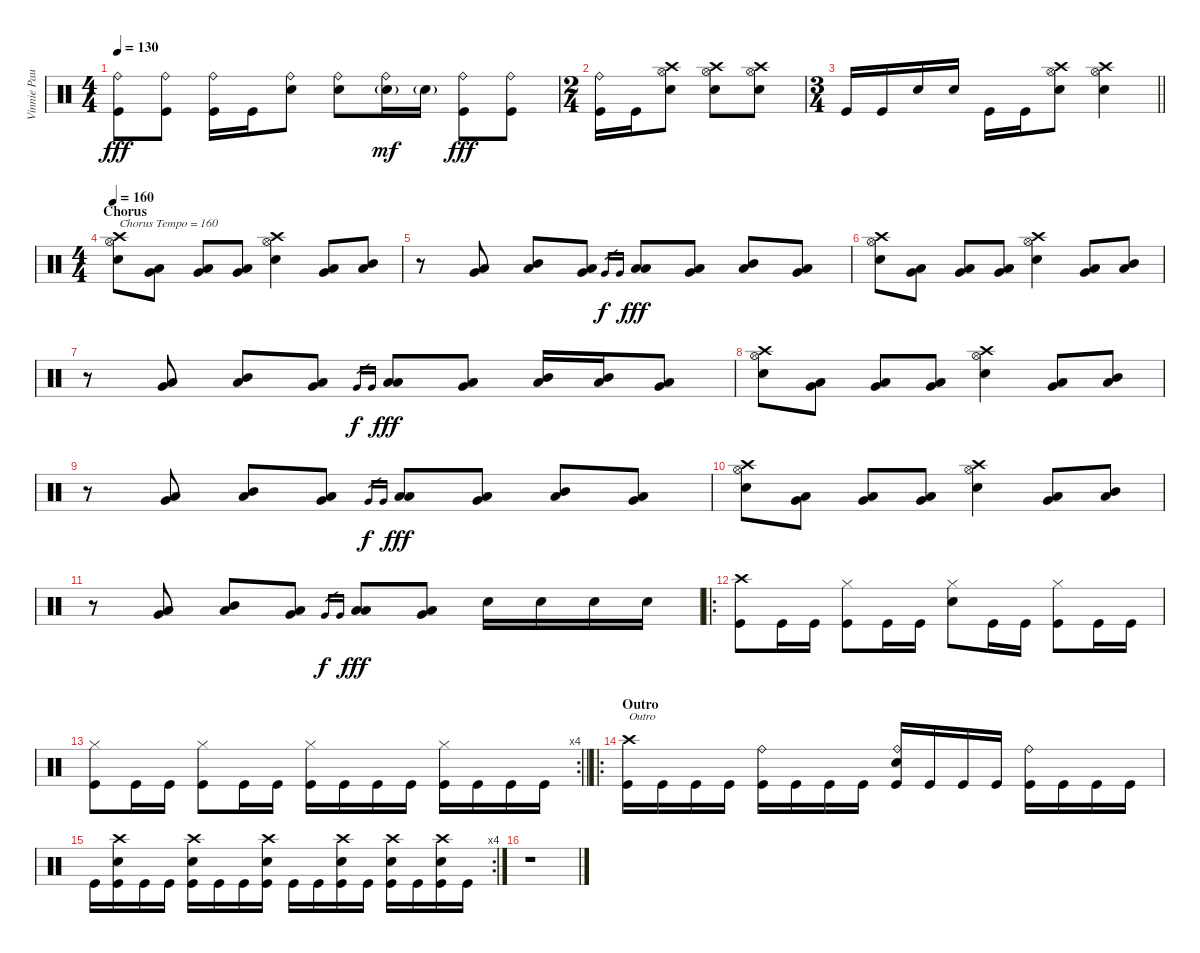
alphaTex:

\track ("Vinnie Paul" "Vinnie Pau") {instrument percussion}
\staff {score}
\articulation defaults
\ts (4 4)
\tempo 130
\clef neutral
\ks c
("Kick (hit)" "Ride (bell)").8{dy fff} ("Kick (hit)" "Ride (bell)").8 ("Kick (hit)" "Ride (bell)").16 "Kick (hit)".16 ("Electric Snare (hit)" "Ride (bell)").8 ("Electric Snare (hit)" "Ride (bell)").8 ("Electric Snare (hit)"{g} "Ride (bell)").16{dy mf} "Electric Snare (hit)"{g}.16 ("Kick (hit)" "Ride (bell)").8{dy fff} ("Kick (hit)" "Ride (bell)").8 |
\ts (2 4)
("Kick (hit)" "Ride (bell)").16 "Kick (hit)".16 ("Electric Snare (hit)" "Crash high (hit)" "Hi-Hat (open)").8 ("Electric Snare (hit)" "Crash high (hit)" "Hi-Hat (open)").8 ("Electric Snare (hit)" "Crash high (hit)" "Hi-Hat (open)").8 |
\ts (3 4)
\barLineRight lightlight "Kick (hit)".16 "Kick (hit)".16 "Electric Snare (hit)".16 "Electric Snare (hit)".16 "Kick (hit)".16 "Kick (hit)".16
("Electric Snare (hit)" "Crash high (hit)" "Hi-Hat (open)").8 ("Electric Snare (hit)" "Crash high (hit)" "Hi-Hat (open)").4 |
\ts (4 4)
\section ("" "Chorus")
\tempo 160
("Electric Snare (hit)" "Crash high (hit)" "Hi-Hat (open)").8{txt "Chorus Tempo = 160"} ("Low Tom (hit)" "Very Low Tom (hit)").8 ("Low Tom (hit)" "Very Low Tom (hit)").8 ("Low Tom (hit)" "Very Low Tom (hit)").8 ("Electric Snare (hit)" "Crash high (hit)" "Hi-Hat (open)").4 ("Low Tom (hit)" "Very Low Tom (hit)").8 ("Mid Tom (hit)" "Low Tom (hit)").8 |
r.8 ("Low Tom (hit)" "Very Low Tom (hit)").8 ("Mid Tom (hit)" "Low Tom (hit)").8 ("Low Tom (hit)" "Very Low Tom (hit)").8 "Very Low Tom (hit)".16{gr dy f} "Very Low Tom (hit)".16{gr} ("Low Tom (hit)" "Low Tom (hit)").8{dy fff} ("Low Tom (hit)" "Very Low Tom (hit)").8 ("Mid Tom (hit)" "Low Tom (hit)").8 ("Low Tom (hit)" "Very Low Tom (hit)").8 |
("Electric Snare (hit)" "Crash high (hit)" "Hi-Hat (open)").8 ("Low Tom (hit)" "Very Low Tom (hit)").8 ("Low Tom (hit)" "Very Low Tom (hit)").8 ("Low Tom (hit)" "Very Low Tom (hit)").8 ("Electric Snare (hit)" "Crash high (hit)" "Hi-Hat (open)").4 ("Low Tom (hit)" "Very Low Tom (hit)").8 ("Mid Tom (hit)" "Low Tom (hit)").8 |
r.8 ("Low Tom (hit)" "Very Low Tom (hit)").8 ("Mid Tom (hit)" "Low Tom (hit)").8 ("Low Tom (hit)" "Very Low Tom (hit)").8 "Very Low Tom (hit)".16{gr dy f} "Very Low Tom (hit)".16{gr} ("Low Tom (hit)" "Low Tom (hit)").8{dy fff} ("Low Tom (hit)" "Very Low Tom (hit)").8 ("Mid Tom (hit)" "Low Tom (hit)").16 ("Mid Tom (hit)" "Low Tom (hit)").16 ("Low Tom (hit)" "Very Low Tom (hit)").8 |
("Electric Snare (hit)" "Crash high (hit)" "Hi-Hat (open)").8 ("Low Tom (hit)" "Very Low Tom (hit)").8 ("Low Tom (hit)" "Very Low Tom (hit)").8 ("Low Tom (hit)" "Very Low Tom (hit)").8 ("Electric Snare (hit)" "Crash high (hit)" "Hi-Hat (open)").4 ("Low Tom (hit)" "Very Low Tom (hit)").8 ("Mid Tom (hit)" "Low Tom (hit)").8 |
r.8 ("Low Tom (hit)" "Very Low Tom (hit)").8 ("Mid Tom (hit)" "Low Tom (hit)").8 ("Low Tom (hit)" "Very Low Tom (hit)").8 "Very Low Tom (hit)".16{gr dy f} "Very Low Tom (hit)".16{gr} ("Low Tom (hit)" "Low Tom (hit)").8{dy fff} ("Low Tom (hit)" "Very Low Tom (hit)").8 ("Mid Tom (hit)" "Low Tom (hit)").8 ("Low Tom (hit)" "Very Low Tom (hit)").8 |
("Electric Snare (hit)" "Crash high (hit)" "Hi-Hat (open)").8 ("Low Tom (hit)" "Very Low Tom (hit)").8 ("Low Tom (hit)" "Very Low Tom (hit)").8 ("Low Tom (hit)" "Very Low Tom (hit)").8 ("Electric Snare (hit)" "Crash high (hit)" "Hi-Hat (open)").4 ("Low Tom (hit)" "Very Low Tom (hit)").8 ("Mid Tom (hit)" "Low Tom (hit)").8 |
r.8 ("Low Tom (hit)" "Very Low Tom (hit)").8 ("Mid Tom (hit)" "Low Tom (hit)").8 ("Low Tom (hit)" "Very Low Tom (hit)").8 "Very Low Tom (hit)".16{gr dy f} "Very Low Tom (hit)".16{gr} ("Low Tom (hit)" "Low Tom (hit)").8{dy fff} ("Low Tom (hit)" "Very Low Tom (hit)").8 "Electric Snare (hit)".16 "Electric Snare (hit)".16 "Electric Snare (hit)".16 "Electric Snare (hit)".16 |
\ro
("Kick (hit)" "Crash high (hit)").8 "Kick (hit)".16 "Kick (hit)".16 ("Kick (hit)" "Hi-Hat (closed)").8 "Kick (hit)".16 "Kick (hit)".16 ("Electric Snare (hit)" "Hi-Hat (closed)").8 "Kick (hit)".16 "Kick (hit)".16 ("Kick (hit)" "Hi-Hat (closed)").8 "Kick (hit)".16 "Kick (hit)".16 |
\rc 4
\barLineRight lightlight
("Kick (hit)" "Hi-Hat (closed)").8 "Kick (hit)".16 "Kick (hit)".16 ("Kick (hit)" "Hi-Hat (closed)").8 "Kick (hit)".16 "Kick (hit)".16 ("Kick (hit)" "Hi-Hat (closed)").16 "Kick (hit)".16 "Kick (hit)".16 "Kick (hit)".16 ("Kick (hit)" "Hi-Hat (closed)").16 "Kick (hit)".16 "Kick (hit)".16 "Kick (hit)".16 |
\ro
\section ("" "Outro")
("Kick (hit)" "Crash high (hit)").16{txt "Outro"} "Kick (hit)".16 "Kick (hit)".16 "Kick (hit)".16 ("Kick (hit)" "Ride (bell)").16 "Kick (hit)".16 "Kick (hit)".16 "Kick (hit)".16 ("Electric Snare (hit)" "Kick (hit)" "Ride (bell)").16 "Kick (hit)".16 "Kick (hit)".16 "Kick (hit)".16 ("Kick (hit)" "Ride (bell)").16 "Kick (hit)".16 "Kick (hit)".16 "Kick (hit)".16 |
\rc 4 "Kick (hit)".16
("Electric Snare (hit)" "Kick (hit)" "Crash high (hit)").16 "Kick (hit)".16 "Kick (hit)".16 ("Electric Snare (hit)" "Kick (hit)" "Crash high (hit)").16 "Kick (hit)".16 "Kick (hit)".16 ("Electric Snare (hit)" "Kick (hit)" "Crash high (hit)").16 "Kick (hit)".16 "Kick (hit)".16 ("Electric Snare (hit)" "Kick (hit)" "Crash high (hit)").16 "Kick (hit)".16 ("Electric Snare (hit)" "Kick (hit)" "Crash high (hit)").16 "Kick (hit)".16 ("Electric Snare (hit)" "Kick (hit)" "Crash high (hit)").16 "Kick (hit)".16 |
r.1
